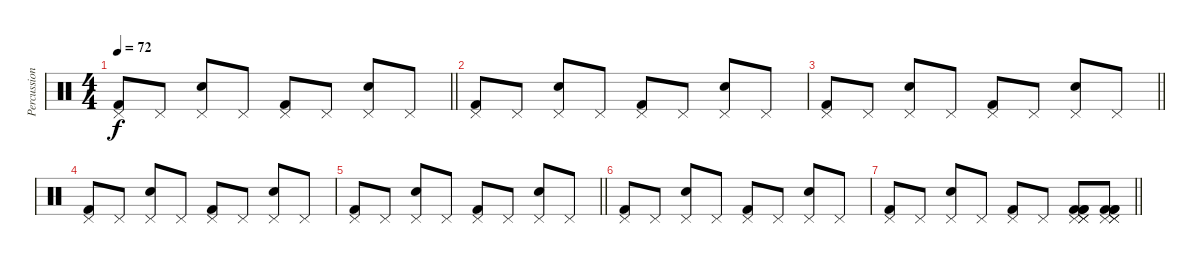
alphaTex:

\track ("Percussion" "Percussion") {instrument percussion}
\staff {score}
\articulation defaults
\ts (4 4)
\tempo 72
\clef neutral
\barLineRight lightlight
\ks c
("Pedal Hi-Hat (hit)" "Kick (hit) 2").8{dy f} "Pedal Hi-Hat (hit)".8 ("Pedal Hi-Hat (hit)" "Snare (hit) 2").8 "Pedal Hi-Hat (hit)".8 ("Pedal Hi-Hat (hit)" "Kick (hit) 2").8 "Pedal Hi-Hat (hit)".8 ("Pedal Hi-Hat (hit)" "Snare (hit) 2").8 "Pedal Hi-Hat (hit)".8 |
("Pedal Hi-Hat (hit)" "Kick (hit) 2").8 "Pedal Hi-Hat (hit)".8 ("Pedal Hi-Hat (hit)" "Snare (hit) 2").8 "Pedal Hi-Hat (hit)".8 ("Pedal Hi-Hat (hit)" "Kick (hit) 2").8 "Pedal Hi-Hat (hit)".8 ("Pedal Hi-Hat (hit)" "Snare (hit) 2").8 "Pedal Hi-Hat (hit)".8 |
\barLineRight lightlight
("Pedal Hi-Hat (hit)" "Kick (hit) 2").8 "Pedal Hi-Hat (hit)".8 ("Pedal Hi-Hat (hit)" "Snare (hit) 2").8 "Pedal Hi-Hat (hit)".8 ("Pedal Hi-Hat (hit)" "Kick (hit) 2").8 "Pedal Hi-Hat (hit)".8 ("Pedal Hi-Hat (hit)" "Snare (hit) 2").8 "Pedal Hi-Hat (hit)".8 |
("Pedal Hi-Hat (hit)" "Kick (hit) 2").8 "Pedal Hi-Hat (hit)".8 ("Pedal Hi-Hat (hit)" "Snare (hit) 2").8 "Pedal Hi-Hat (hit)".8 ("Pedal Hi-Hat (hit)" "Kick (hit) 2").8 "Pedal Hi-Hat (hit)".8 ("Pedal Hi-Hat (hit)" "Snare (hit) 2").8 "Pedal Hi-Hat (hit)".8 |
\barLineRight lightlight
("Pedal Hi-Hat (hit)" "Kick (hit) 2").8 "Pedal Hi-Hat (hit)".8 ("Pedal Hi-Hat (hit)" "Snare (hit) 2").8 "Pedal Hi-Hat (hit)".8 ("Pedal Hi-Hat (hit)" "Kick (hit) 2").8 "Pedal Hi-Hat (hit)".8 ("Pedal Hi-Hat (hit)" "Snare (hit) 2").8 "Pedal Hi-Hat (hit)".8 |
("Pedal Hi-Hat (hit)" "Kick (hit) 2").8 "Pedal Hi-Hat (hit)".8 ("Pedal Hi-Hat (hit)" "Snare (hit) 2").8 "Pedal Hi-Hat (hit)".8 ("Pedal Hi-Hat (hit)" "Kick (hit) 2").8 "Pedal Hi-Hat (hit)".8 ("Pedal Hi-Hat (hit)" "Snare (hit) 2").8 "Pedal Hi-Hat (hit)".8 |
\barLineRight lightlight
("Pedal Hi-Hat (hit)" "Kick (hit) 2").8 "Pedal Hi-Hat (hit)".8 ("Pedal Hi-Hat (hit)" "Snare (hit) 2").8 "Pedal Hi-Hat (hit)".8 ("Pedal Hi-Hat (hit)" "Kick (hit) 2").8 "Pedal Hi-Hat (hit)".8 ("Pedal Hi-Hat (hit)" "Pedal Hi-Hat (hit)" "Pedal Hi-Hat (hit)" "Kick (hit) 2" "Kick (hit) 2" "Kick (hit) 2").8 ("Pedal Hi-Hat (hit)" "Pedal Hi-Hat (hit)" "Pedal Hi-Hat (hit)" "Kick (hit) 2" "Kick (hit) 2" "Kick (hit) 2").8
